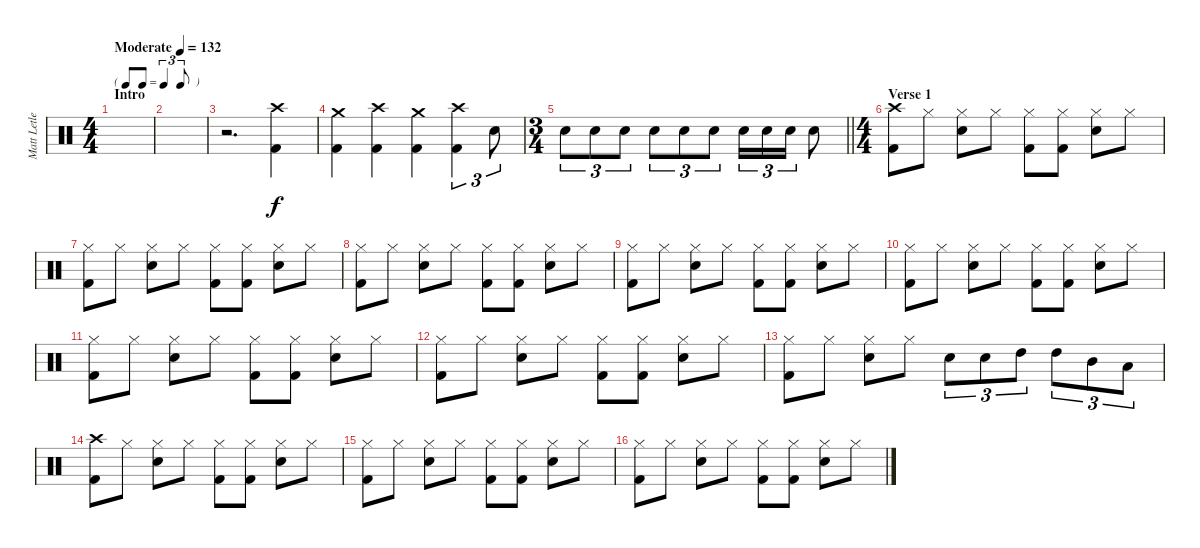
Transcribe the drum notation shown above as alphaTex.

\track ("Matt Letley" "Matt Letle") {instrument percussion}
\staff {score}
\articulation defaults
\ts (4 4)
\tf triplet8th
\section ("" "Intro")
\tempo (132 "Moderate")
\clef neutral
\ks c
|
|
r.2{d} ("Crash high (hit)" "Kick (hit) 2").4 |
("Crash medium (hit)" "Kick (hit) 2").4 ("Crash high (hit)" "Kick (hit) 2").4 ("Crash medium (hit)" "Kick (hit) 2").4 ("Crash high (hit)" "Kick (hit) 2").4{tu (3 2)} "Electric Snare (hit)".8{tu (3 2)} |
\ts (3 4)
\barLineRight lightlight "Electric Snare (hit)".8{tu (3 2)} "Electric Snare (hit)".8{tu (3 2)} "Electric Snare (hit)".8{tu (3 2)} "Electric Snare (hit)".8{tu (3 2)} "Electric Snare (hit)".8{tu (3 2)} "Electric Snare (hit)".8{tu (3 2)} "Electric Snare (hit)".16{tu (3 2)} "Electric Snare (hit)".16{tu (3 2)} "Electric Snare (hit)".16{tu (3 2)} "Electric Snare (hit)".8
|
\ts (4 4)
\section ("" "Verse 1")
("Crash high (hit)" "Kick (hit) 2").8 "Hi-Hat (closed)".8 ("Hi-Hat (closed)" "Electric Snare (hit)").8 "Hi-Hat (closed)".8 ("Hi-Hat (closed)" "Kick (hit) 2").8 ("Hi-Hat (closed)" "Kick (hit) 2").8 ("Hi-Hat (closed)" "Electric Snare (hit)").8 "Hi-Hat (closed)".8 |
("Hi-Hat (closed)" "Kick (hit) 2").8 "Hi-Hat (closed)".8 ("Hi-Hat (closed)" "Electric Snare (hit)").8 "Hi-Hat (closed)".8 ("Hi-Hat (closed)" "Kick (hit) 2").8 ("Hi-Hat (closed)" "Kick (hit) 2").8 ("Hi-Hat (closed)" "Electric Snare (hit)").8 "Hi-Hat (closed)".8 |
("Hi-Hat (closed)" "Kick (hit) 2").8 "Hi-Hat (closed)".8 ("Hi-Hat (closed)" "Electric Snare (hit)").8 "Hi-Hat (closed)".8 ("Hi-Hat (closed)" "Kick (hit) 2").8 ("Hi-Hat (closed)" "Kick (hit) 2").8 ("Hi-Hat (closed)" "Electric Snare (hit)").8 "Hi-Hat (closed)".8 |
("Hi-Hat (closed)" "Kick (hit) 2").8 "Hi-Hat (closed)".8 ("Hi-Hat (closed)" "Electric Snare (hit)").8 "Hi-Hat (closed)".8 ("Hi-Hat (closed)" "Kick (hit) 2").8 ("Hi-Hat (closed)" "Kick (hit) 2").8 ("Hi-Hat (closed)" "Electric Snare (hit)").8 "Hi-Hat (closed)".8 |
("Hi-Hat (closed)" "Kick (hit) 2").8 "Hi-Hat (closed)".8 ("Hi-Hat (closed)" "Electric Snare (hit)").8 "Hi-Hat (closed)".8 ("Hi-Hat (closed)" "Kick (hit) 2").8 ("Hi-Hat (closed)" "Kick (hit) 2").8 ("Hi-Hat (closed)" "Electric Snare (hit)").8 "Hi-Hat (closed)".8 |
("Hi-Hat (closed)" "Kick (hit) 2").8 "Hi-Hat (closed)".8 ("Hi-Hat (closed)" "Electric Snare (hit)").8 "Hi-Hat (closed)".8 ("Hi-Hat (closed)" "Kick (hit) 2").8 ("Hi-Hat (closed)" "Kick (hit) 2").8 ("Hi-Hat (closed)" "Electric Snare (hit)").8 "Hi-Hat (closed)".8 |
("Hi-Hat (closed)" "Kick (hit) 2").8 "Hi-Hat (closed)".8 ("Hi-Hat (closed)" "Electric Snare (hit)").8 "Hi-Hat (closed)".8 ("Hi-Hat (closed)" "Kick (hit) 2").8 ("Hi-Hat (closed)" "Kick (hit) 2").8 ("Hi-Hat (closed)" "Electric Snare (hit)").8 "Hi-Hat (closed)".8 |
("Hi-Hat (closed)" "Kick (hit) 2").8 "Hi-Hat (closed)".8 ("Hi-Hat (closed)" "Electric Snare (hit)").8 "Hi-Hat (closed)".8 "Electric Snare (hit)".8{tu (3 2)} "Electric Snare (hit)".8{tu (3 2)} "High Tom (hit)".8{tu (3 2)} "High Tom (hit)".8{tu (3 2)} "Mid Tom (hit)".8{tu (3 2)} "Low Tom (hit)".8{tu (3 2)} |
("Crash high (hit)" "Kick (hit) 2").8 "Hi-Hat (closed)".8 ("Hi-Hat (closed)" "Electric Snare (hit)").8 "Hi-Hat (closed)".8 ("Hi-Hat (closed)" "Kick (hit) 2").8 ("Hi-Hat (closed)" "Kick (hit) 2").8 ("Hi-Hat (closed)" "Electric Snare (hit)").8 "Hi-Hat (closed)".8 |
("Hi-Hat (closed)" "Kick (hit) 2").8 "Hi-Hat (closed)".8 ("Hi-Hat (closed)" "Electric Snare (hit)").8 "Hi-Hat (closed)".8 ("Hi-Hat (closed)" "Kick (hit) 2").8 ("Hi-Hat (closed)" "Kick (hit) 2").8 ("Hi-Hat (closed)" "Electric Snare (hit)").8 "Hi-Hat (closed)".8 |
("Hi-Hat (closed)" "Kick (hit) 2").8 "Hi-Hat (closed)".8 ("Hi-Hat (closed)" "Electric Snare (hit)").8 "Hi-Hat (closed)".8 ("Hi-Hat (closed)" "Kick (hit) 2").8 ("Hi-Hat (closed)" "Kick (hit) 2").8 ("Hi-Hat (closed)" "Electric Snare (hit)").8 "Hi-Hat (closed)".8
